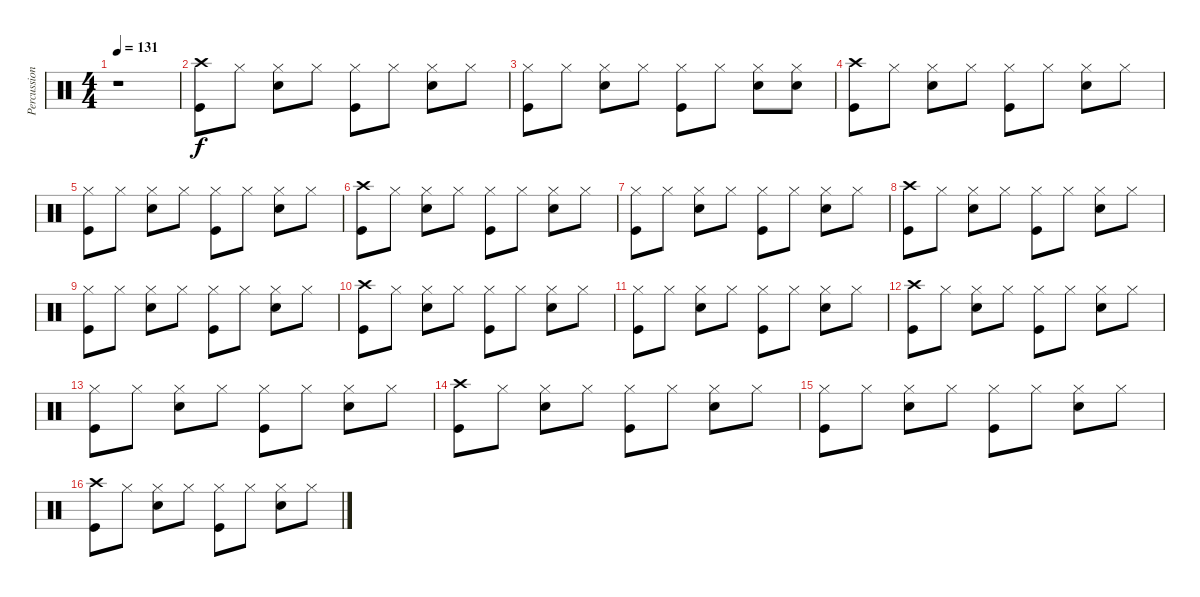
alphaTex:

\track ("Percussion" "Percussion") {instrument percussion}
\staff {score}
\articulation defaults
\ts (4 4)
\tempo 131
\clef neutral
\ks c
r.1{dy f} |
("Crash high (hit)" "Kick (hit)").8 "Hi-Hat (closed)".8 ("Hi-Hat (closed)" "Snare (hit) 2").8 "Hi-Hat (closed)".8 ("Hi-Hat (closed)" "Kick (hit)").8 "Hi-Hat (closed)".8 ("Hi-Hat (closed)" "Snare (hit) 2").8 "Hi-Hat (closed)".8 |
("Hi-Hat (closed)" "Kick (hit)").8 "Hi-Hat (closed)".8 ("Hi-Hat (closed)" "Snare (hit) 2").8 "Hi-Hat (closed)".8 ("Hi-Hat (closed)" "Kick (hit)").8 "Hi-Hat (closed)".8 ("Hi-Hat (closed)" "Snare (hit) 2").8 ("Hi-Hat (closed)" "Snare (hit) 2").8 |
("Crash high (hit)" "Kick (hit)").8 "Hi-Hat (closed)".8 ("Hi-Hat (closed)" "Snare (hit) 2").8 "Hi-Hat (closed)".8 ("Hi-Hat (closed)" "Kick (hit)").8 "Hi-Hat (closed)".8 ("Hi-Hat (closed)" "Snare (hit) 2").8 "Hi-Hat (closed)".8 |
("Hi-Hat (closed)" "Kick (hit)").8 "Hi-Hat (closed)".8 ("Hi-Hat (closed)" "Snare (hit) 2").8 "Hi-Hat (closed)".8 ("Hi-Hat (closed)" "Kick (hit)").8 "Hi-Hat (closed)".8 ("Hi-Hat (closed)" "Snare (hit) 2").8 "Hi-Hat (closed)".8 |
("Crash high (hit)" "Kick (hit)").8 "Hi-Hat (closed)".8 ("Hi-Hat (closed)" "Snare (hit) 2").8 "Hi-Hat (closed)".8 ("Hi-Hat (closed)" "Kick (hit)").8 "Hi-Hat (closed)".8 ("Hi-Hat (closed)" "Snare (hit) 2").8 "Hi-Hat (closed)".8 |
("Hi-Hat (closed)" "Kick (hit)").8 "Hi-Hat (closed)".8 ("Hi-Hat (closed)" "Snare (hit) 2").8 "Hi-Hat (closed)".8 ("Hi-Hat (closed)" "Kick (hit)").8 "Hi-Hat (closed)".8 ("Hi-Hat (closed)" "Snare (hit) 2").8 "Hi-Hat (closed)".8 |
("Crash high (hit)" "Kick (hit)").8 "Hi-Hat (closed)".8 ("Hi-Hat (closed)" "Snare (hit) 2").8 "Hi-Hat (closed)".8 ("Hi-Hat (closed)" "Kick (hit)").8 "Hi-Hat (closed)".8 ("Hi-Hat (closed)" "Snare (hit) 2").8 "Hi-Hat (closed)".8 |
("Hi-Hat (closed)" "Kick (hit)").8 "Hi-Hat (closed)".8 ("Hi-Hat (closed)" "Snare (hit) 2").8 "Hi-Hat (closed)".8 ("Hi-Hat (closed)" "Kick (hit)").8 "Hi-Hat (closed)".8 ("Hi-Hat (closed)" "Snare (hit) 2").8 "Hi-Hat (closed)".8 |
("Crash high (hit)" "Kick (hit)").8 "Hi-Hat (closed)".8 ("Hi-Hat (closed)" "Snare (hit) 2").8 "Hi-Hat (closed)".8 ("Hi-Hat (closed)" "Kick (hit)").8 "Hi-Hat (closed)".8 ("Hi-Hat (closed)" "Snare (hit) 2").8 "Hi-Hat (closed)".8 |
("Hi-Hat (closed)" "Kick (hit)").8 "Hi-Hat (closed)".8 ("Hi-Hat (closed)" "Snare (hit) 2").8 "Hi-Hat (closed)".8 ("Hi-Hat (closed)" "Kick (hit)").8 "Hi-Hat (closed)".8 ("Hi-Hat (closed)" "Snare (hit) 2").8 "Hi-Hat (closed)".8 |
("Crash high (hit)" "Kick (hit)").8 "Hi-Hat (closed)".8 ("Hi-Hat (closed)" "Snare (hit) 2").8 "Hi-Hat (closed)".8 ("Hi-Hat (closed)" "Kick (hit)").8 "Hi-Hat (closed)".8 ("Hi-Hat (closed)" "Snare (hit) 2").8 "Hi-Hat (closed)".8 |
("Hi-Hat (closed)" "Kick (hit)").8 "Hi-Hat (closed)".8 ("Hi-Hat (closed)" "Snare (hit) 2").8 "Hi-Hat (closed)".8 ("Hi-Hat (closed)" "Kick (hit)").8 "Hi-Hat (closed)".8 ("Hi-Hat (closed)" "Snare (hit) 2").8 "Hi-Hat (closed)".8 |
("Crash high (hit)" "Kick (hit)").8 "Hi-Hat (closed)".8 ("Hi-Hat (closed)" "Snare (hit) 2").8 "Hi-Hat (closed)".8 ("Hi-Hat (closed)" "Kick (hit)").8 "Hi-Hat (closed)".8 ("Hi-Hat (closed)" "Snare (hit) 2").8 "Hi-Hat (closed)".8 |
("Hi-Hat (closed)" "Kick (hit)").8 "Hi-Hat (closed)".8 ("Hi-Hat (closed)" "Snare (hit) 2").8 "Hi-Hat (closed)".8 ("Hi-Hat (closed)" "Kick (hit)").8 "Hi-Hat (closed)".8 ("Hi-Hat (closed)" "Snare (hit) 2").8 "Hi-Hat (closed)".8 |
("Crash high (hit)" "Kick (hit)").8 "Hi-Hat (closed)".8 ("Hi-Hat (closed)" "Snare (hit) 2").8 "Hi-Hat (closed)".8 ("Hi-Hat (closed)" "Kick (hit)").8 "Hi-Hat (closed)".8 ("Hi-Hat (closed)" "Snare (hit) 2").8 "Hi-Hat (closed)".8
